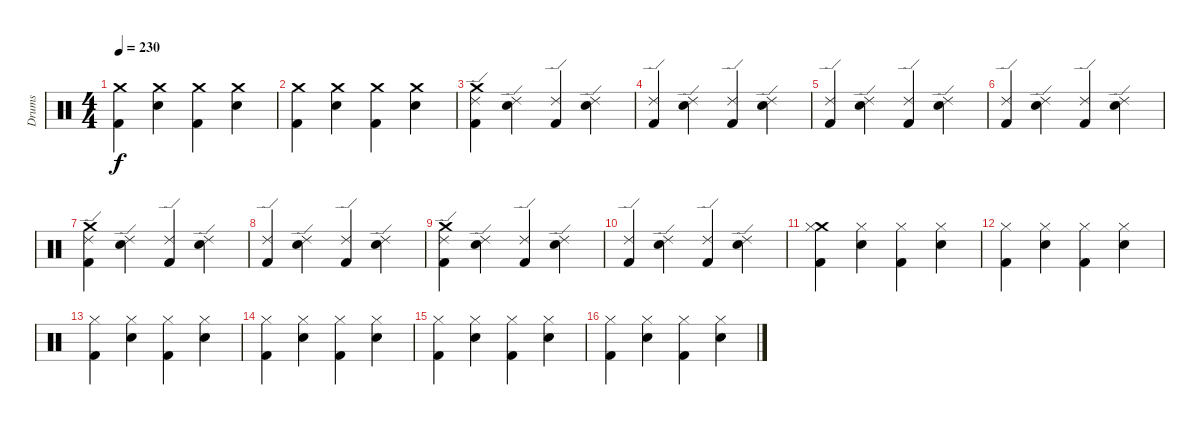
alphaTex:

\track ("Drums" "Drums") {instrument percussion}
\staff {score}
\articulation defaults
\ts (4 4)
\tempo 230
\clef neutral
\ks c
("Crash medium (hit)" "Kick (hit) 2").4{dy f} ("Crash medium (hit)" "Snare (hit) 2").4 ("Crash medium (hit)" "Kick (hit) 2").4 ("Crash medium (hit)" "Snare (hit) 2").4 |
("Crash medium (hit)" "Kick (hit) 2").4 ("Crash medium (hit)" "Snare (hit) 2").4 ("Crash medium (hit)" "Kick (hit) 2").4 ("Crash medium (hit)" "Snare (hit) 2").4 |
("Crash medium (hit)" "Ride (edge) 2" "Kick (hit) 2").4 ("Ride (edge) 2" "Snare (hit) 2").4 ("Ride (edge) 2" "Kick (hit) 2").4 ("Ride (edge) 2" "Snare (hit) 2").4 |
("Ride (edge) 2" "Kick (hit) 2").4 ("Ride (edge) 2" "Snare (hit) 2").4 ("Ride (edge) 2" "Kick (hit) 2").4 ("Ride (edge) 2" "Snare (hit) 2").4 |
("Ride (edge) 2" "Kick (hit) 2").4 ("Ride (edge) 2" "Snare (hit) 2").4 ("Ride (edge) 2" "Kick (hit) 2").4 ("Ride (edge) 2" "Snare (hit) 2").4 |
("Ride (edge) 2" "Kick (hit) 2").4 ("Ride (edge) 2" "Snare (hit) 2").4 ("Ride (edge) 2" "Kick (hit) 2").4 ("Ride (edge) 2" "Snare (hit) 2").4 |
("Crash medium (hit)" "Ride (edge) 2" "Kick (hit) 2").4 ("Ride (edge) 2" "Snare (hit) 2").4 ("Ride (edge) 2" "Kick (hit) 2").4 ("Ride (edge) 2" "Snare (hit) 2").4 |
("Ride (edge) 2" "Kick (hit) 2").4 ("Ride (edge) 2" "Snare (hit) 2").4 ("Ride (edge) 2" "Kick (hit) 2").4 ("Ride (edge) 2" "Snare (hit) 2").4 |
("Crash medium (hit)" "Ride (edge) 2" "Kick (hit) 2").4 ("Ride (edge) 2" "Snare (hit) 2").4 ("Ride (edge) 2" "Kick (hit) 2").4 ("Ride (edge) 2" "Snare (hit) 2").4 |
("Ride (edge) 2" "Kick (hit) 2").4 ("Ride (edge) 2" "Snare (hit) 2").4 ("Ride (edge) 2" "Kick (hit) 2").4 ("Ride (edge) 2" "Snare (hit) 2").4 |
("Crash medium (hit)" "Hi-Hat (closed)" "Kick (hit) 2").4 ("Hi-Hat (closed)" "Snare (hit) 2").4 ("Hi-Hat (closed)" "Kick (hit) 2").4 ("Hi-Hat (closed)" "Snare (hit) 2").4 |
("Hi-Hat (closed)" "Kick (hit) 2").4 ("Hi-Hat (closed)" "Snare (hit) 2").4 ("Hi-Hat (closed)" "Kick (hit) 2").4 ("Hi-Hat (closed)" "Snare (hit) 2").4 |
("Hi-Hat (closed)" "Kick (hit) 2").4 ("Hi-Hat (closed)" "Snare (hit) 2").4 ("Hi-Hat (closed)" "Kick (hit) 2").4 ("Hi-Hat (closed)" "Snare (hit) 2").4 |
("Hi-Hat (closed)" "Kick (hit) 2").4 ("Hi-Hat (closed)" "Snare (hit) 2").4 ("Hi-Hat (closed)" "Kick (hit) 2").4 ("Hi-Hat (closed)" "Snare (hit) 2").4 |
("Hi-Hat (closed)" "Kick (hit) 2").4 ("Hi-Hat (closed)" "Snare (hit) 2").4 ("Hi-Hat (closed)" "Kick (hit) 2").4 ("Hi-Hat (closed)" "Snare (hit) 2").4 |
("Hi-Hat (closed)" "Kick (hit) 2").4 ("Hi-Hat (closed)" "Snare (hit) 2").4 ("Hi-Hat (closed)" "Kick (hit) 2").4 ("Hi-Hat (closed)" "Snare (hit) 2").4
